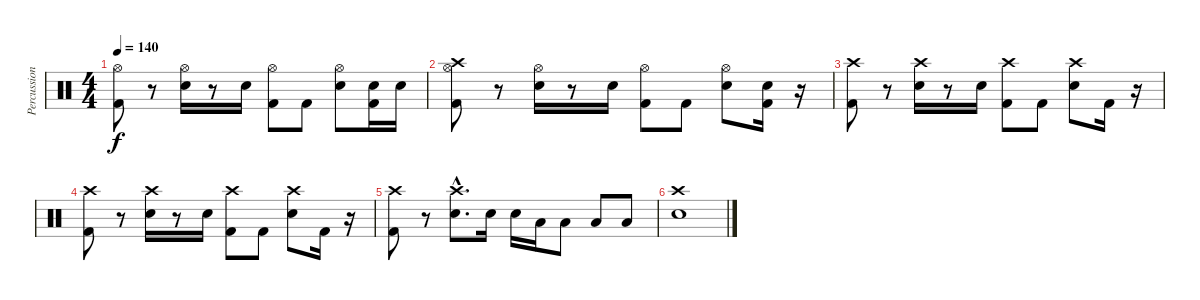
\track ("Percussion" "Percussion") {instrument percussion}
\staff {score}
\articulation defaults
\ts (4 4)
\tempo 140
\clef neutral
\ks c
("Hi-Hat (open)" "Kick (hit) 2").8{dy f} r.8 ("Hi-Hat (open)" "Electric Snare (hit)").16 r.8 "Electric Snare (hit)".16 ("Hi-Hat (open)" "Kick (hit) 2").8 "Kick (hit) 2".8 ("Hi-Hat (open)" "Electric Snare (hit)").8 ("Electric Snare (hit)" "Kick (hit) 2").16 "Electric Snare (hit)".16 |
("Crash high (hit)" "Hi-Hat (open)" "Kick (hit) 2").8 r.8 ("Hi-Hat (open)" "Electric Snare (hit)").16 r.8 "Electric Snare (hit)".16 ("Hi-Hat (open)" "Kick (hit) 2").8 "Kick (hit) 2".8 ("Hi-Hat (open)" "Electric Snare (hit)").8 ("Electric Snare (hit)" "Kick (hit) 2").16 r.16 |
("Crash high (hit)" "Kick (hit) 2").8 r.8 ("Crash high (hit)" "Electric Snare (hit)").16 r.8 "Electric Snare (hit)".16 ("Crash high (hit)" "Kick (hit) 2").8 "Kick (hit) 2".8 ("Crash high (hit)" "Electric Snare (hit)").8 "Kick (hit) 2".16 r.16 |
("Crash high (hit)" "Kick (hit) 2").8 r.8 ("Crash high (hit)" "Electric Snare (hit)").16 r.8 "Electric Snare (hit)".16 ("Crash high (hit)" "Kick (hit) 2").8 "Kick (hit) 2".8 ("Crash high (hit)" "Electric Snare (hit)").8 "Kick (hit) 2".16 r.16 |
("Crash high (hit)" "Kick (hit) 2").8 r.8 ("Crash high (hit)"{hac} "Electric Snare (hit)"{hac}).8{d} "Electric Snare (hit)".16 "Electric Snare (hit)".16 "Low Tom (hit)".16 "Low Tom (hit)".8 "Low Tom (hit)".8 "Low Tom (hit)".8 |
("Crash high (hit)" "Electric Snare (hit)").1
